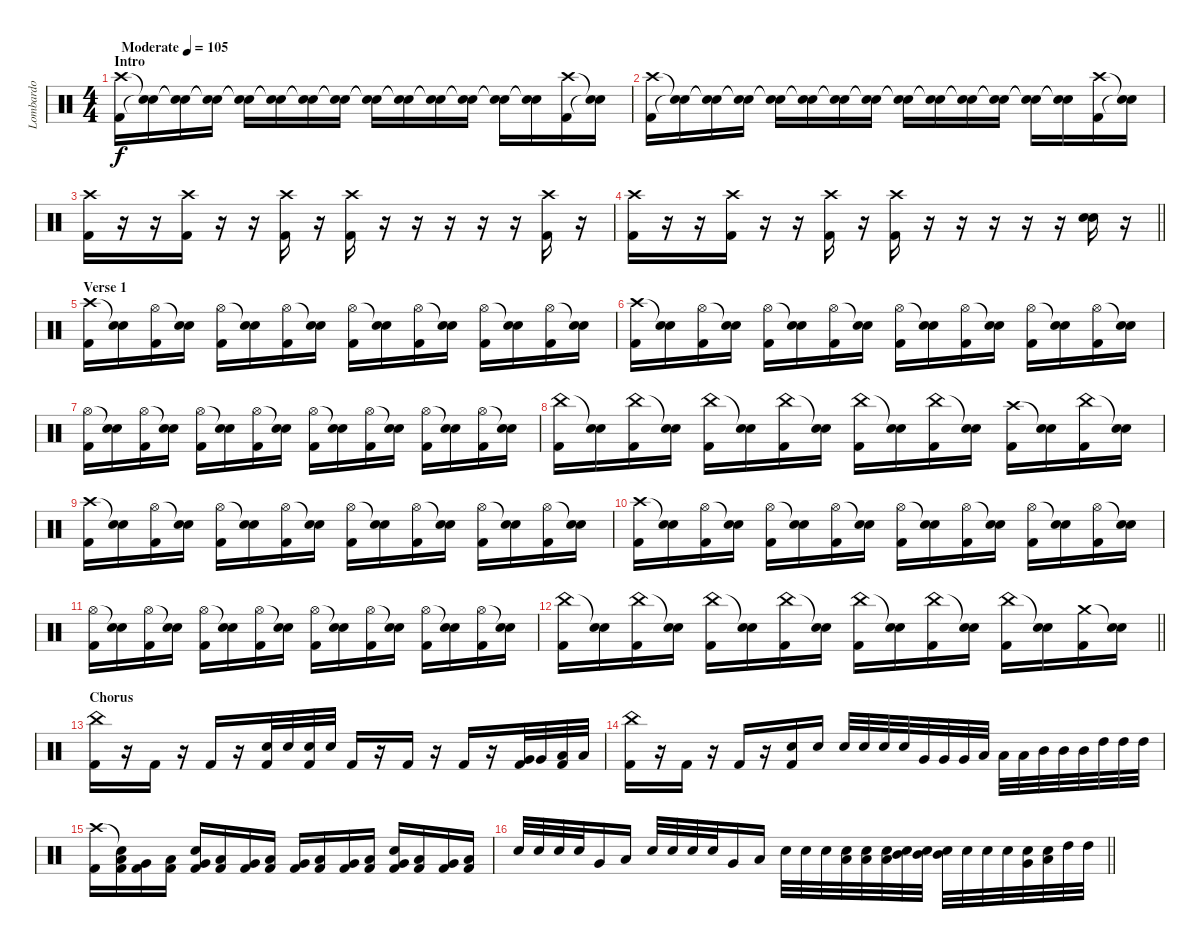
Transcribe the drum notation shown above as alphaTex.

\track ("Lombardo" "Lombardo") {instrument percussion}
\staff {score}
\articulation defaults
\ts (4 4)
\section ("" "Intro")
\tempo (105 "Moderate")
\clef neutral
\ks c
("Crash high (hit)" "Kick (hit) 2").16{dy f} ("Snare (hit)"{t} "Snare (hit)"{t}).16 ("Snare (hit)"{t} "Snare (hit)"{t}).16 ("Snare (hit)"{t} "Snare (hit)"{t}).16 ("Snare (hit)"{t} "Snare (hit)"{t}).16 ("Snare (hit)"{t} "Snare (hit)"{t}).16 ("Snare (hit)"{t} "Snare (hit)"{t}).16 ("Snare (hit)"{t} "Snare (hit)"{t}).16 ("Snare (hit)"{t} "Snare (hit)"{t}).16 ("Snare (hit)"{t} "Snare (hit)"{t}).16 ("Snare (hit)"{t} "Snare (hit)"{t}).16 ("Snare (hit)"{t} "Snare (hit)"{t}).16 ("Snare (hit)"{t} "Snare (hit)"{t}).16 ("Snare (hit)"{t} "Snare (hit)"{t}).16 ("Crash high (hit)" "Kick (hit) 2").16 ("Snare (hit)"{t} "Snare (hit)"{t}).16 |
("Crash high (hit)" "Kick (hit) 2").16 ("Snare (hit)"{t} "Snare (hit)"{t}).16 ("Snare (hit)"{t} "Snare (hit)"{t}).16 ("Snare (hit)"{t} "Snare (hit)"{t}).16 ("Snare (hit)"{t} "Snare (hit)"{t}).16 ("Snare (hit)"{t} "Snare (hit)"{t}).16 ("Snare (hit)"{t} "Snare (hit)"{t}).16 ("Snare (hit)"{t} "Snare (hit)"{t}).16 ("Snare (hit)"{t} "Snare (hit)"{t}).16 ("Snare (hit)"{t} "Snare (hit)"{t}).16 ("Snare (hit)"{t} "Snare (hit)"{t}).16 ("Snare (hit)"{t} "Snare (hit)"{t}).16 ("Snare (hit)"{t} "Snare (hit)"{t}).16 ("Snare (hit)"{t} "Snare (hit)"{t}).16 ("Crash high (hit)" "Kick (hit) 2").16 ("Snare (hit)"{t} "Snare (hit)"{t}).16 |
("Crash high (hit)" "Kick (hit) 2").16 r.16 r.16 ("Crash high (hit)" "Kick (hit) 2").16 r.16 r.16 ("Crash high (hit)" "Kick (hit) 2").16 r.16 ("Crash high (hit)" "Kick (hit) 2").16 r.16 r.16 r.16 r.16 r.16 ("Crash high (hit)" "Kick (hit) 2").16 r.16 |
\barLineRight lightlight
("Crash high (hit)" "Kick (hit) 2").16 r.16 r.16 ("Crash high (hit)" "Kick (hit) 2").16 r.16 r.16 ("Crash high (hit)" "Kick (hit) 2").16 r.16 ("Crash high (hit)" "Kick (hit) 2").16 r.16 r.16 r.16 r.16 r.16 ("Snare (hit) 2" "Snare (hit) 2").16 r.16 |
\section ("" "Verse 1")
("Crash high (hit)" "Kick (hit) 2").16 ("Snare (hit)"{t} "Snare (hit) 2").16 ("Hi-Hat (open)" "Kick (hit) 2").16 ("Snare (hit)"{t} "Snare (hit) 2").16 ("Hi-Hat (open)" "Kick (hit) 2").16 ("Snare (hit)"{t} "Snare (hit) 2").16 ("Hi-Hat (open)" "Kick (hit) 2").16 ("Snare (hit)"{t} "Snare (hit) 2").16 ("Hi-Hat (open)" "Kick (hit) 2").16 ("Snare (hit)"{t} "Snare (hit) 2").16 ("Hi-Hat (open)" "Kick (hit) 2").16 ("Snare (hit)"{t} "Snare (hit) 2").16 ("Hi-Hat (open)" "Kick (hit) 2").16 ("Snare (hit)"{t} "Snare (hit) 2").16 ("Hi-Hat (open)" "Kick (hit) 2").16 ("Snare (hit)"{t} "Snare (hit) 2").16 |
("Crash high (hit)" "Kick (hit) 2").16 ("Snare (hit)"{t} "Snare (hit) 2").16 ("Hi-Hat (open)" "Kick (hit) 2").16 ("Snare (hit)"{t} "Snare (hit) 2").16 ("Hi-Hat (open)" "Kick (hit) 2").16 ("Snare (hit)"{t} "Snare (hit) 2").16 ("Hi-Hat (open)" "Kick (hit) 2").16 ("Snare (hit)"{t} "Snare (hit) 2").16 ("Hi-Hat (open)" "Kick (hit) 2").16 ("Snare (hit)"{t} "Snare (hit) 2").16 ("Hi-Hat (open)" "Kick (hit) 2").16 ("Snare (hit)"{t} "Snare (hit) 2").16 ("Hi-Hat (open)" "Kick (hit) 2").16 ("Snare (hit)"{t} "Snare (hit) 2").16 ("Hi-Hat (open)" "Kick (hit) 2").16 ("Snare (hit)"{t} "Snare (hit) 2").16 |
("Hi-Hat (open)" "Kick (hit) 2").16 ("Snare (hit)"{t} "Snare (hit) 2").16 ("Hi-Hat (open)" "Kick (hit) 2").16 ("Snare (hit)"{t} "Snare (hit) 2").16 ("Hi-Hat (open)" "Kick (hit) 2").16 ("Snare (hit)"{t} "Snare (hit) 2").16 ("Hi-Hat (open)" "Kick (hit) 2").16 ("Snare (hit)"{t} "Snare (hit) 2").16 ("Hi-Hat (open)" "Kick (hit) 2").16 ("Snare (hit)"{t} "Snare (hit) 2").16 ("Hi-Hat (open)" "Kick (hit) 2").16 ("Snare (hit)"{t} "Snare (hit) 2").16 ("Hi-Hat (open)" "Kick (hit) 2").16 ("Snare (hit)"{t} "Snare (hit) 2").16 ("Hi-Hat (open)" "Kick (hit) 2").16 ("Snare (hit)"{t} "Snare (hit) 2").16 |
("China (hit)" "Kick (hit) 2").16 ("Snare (hit)"{t} "Snare (hit) 2").16 ("China (hit)" "Kick (hit) 2").16 ("Snare (hit)"{t} "Snare (hit) 2").16 ("China (hit)" "Kick (hit) 2").16 ("Snare (hit)"{t} "Snare (hit) 2").16 ("China (hit)" "Kick (hit) 2").16 ("Snare (hit)"{t} "Snare (hit) 2").16 ("China (hit)" "Kick (hit) 2").16 ("Snare (hit)"{t} "Snare (hit) 2").16 ("China (hit)" "Kick (hit) 2").16 ("Snare (hit)"{t} "Snare (hit) 2").16 ("Crash high (hit)" "Kick (hit) 2").16 ("Snare (hit)"{t} "Snare (hit) 2").16 ("China (hit)" "Kick (hit) 2").16 ("Snare (hit)"{t} "Snare (hit) 2").16 |
("Crash high (hit)" "Kick (hit) 2").16 ("Snare (hit)"{t} "Snare (hit) 2").16 ("Hi-Hat (open)" "Kick (hit) 2").16 ("Snare (hit)"{t} "Snare (hit) 2").16 ("Hi-Hat (open)" "Kick (hit) 2").16 ("Snare (hit)"{t} "Snare (hit) 2").16 ("Hi-Hat (open)" "Kick (hit) 2").16 ("Snare (hit)"{t} "Snare (hit) 2").16 ("Hi-Hat (open)" "Kick (hit) 2").16 ("Snare (hit)"{t} "Snare (hit) 2").16 ("Hi-Hat (open)" "Kick (hit) 2").16 ("Snare (hit)"{t} "Snare (hit) 2").16 ("Hi-Hat (open)" "Kick (hit) 2").16 ("Snare (hit)"{t} "Snare (hit) 2").16 ("Hi-Hat (open)" "Kick (hit) 2").16 ("Snare (hit)"{t} "Snare (hit) 2").16 |
("Crash high (hit)" "Kick (hit) 2").16 ("Snare (hit)"{t} "Snare (hit) 2").16 ("Hi-Hat (open)" "Kick (hit) 2").16 ("Snare (hit)"{t} "Snare (hit) 2").16 ("Hi-Hat (open)" "Kick (hit) 2").16 ("Snare (hit)"{t} "Snare (hit) 2").16 ("Hi-Hat (open)" "Kick (hit) 2").16 ("Snare (hit)"{t} "Snare (hit) 2").16 ("Hi-Hat (open)" "Kick (hit) 2").16 ("Snare (hit)"{t} "Snare (hit) 2").16 ("Hi-Hat (open)" "Kick (hit) 2").16 ("Snare (hit)"{t} "Snare (hit) 2").16 ("Hi-Hat (open)" "Kick (hit) 2").16 ("Snare (hit)"{t} "Snare (hit) 2").16 ("Hi-Hat (open)" "Kick (hit) 2").16 ("Snare (hit)"{t} "Snare (hit) 2").16 |
("Hi-Hat (open)" "Kick (hit) 2").16 ("Snare (hit)"{t} "Snare (hit) 2").16 ("Hi-Hat (open)" "Kick (hit) 2").16 ("Snare (hit)"{t} "Snare (hit) 2").16 ("Hi-Hat (open)" "Kick (hit) 2").16 ("Snare (hit)"{t} "Snare (hit) 2").16 ("Hi-Hat (open)" "Kick (hit) 2").16 ("Snare (hit)"{t} "Snare (hit) 2").16 ("Hi-Hat (open)" "Kick (hit) 2").16 ("Snare (hit)"{t} "Snare (hit) 2").16 ("Hi-Hat (open)" "Kick (hit) 2").16 ("Snare (hit)"{t} "Snare (hit) 2").16 ("Hi-Hat (open)" "Kick (hit) 2").16 ("Snare (hit)"{t} "Snare (hit) 2").16 ("Hi-Hat (open)" "Kick (hit) 2").16 ("Snare (hit)"{t} "Snare (hit) 2").16 |
\barLineRight lightlight
("China (hit)" "Kick (hit) 2").16 ("Snare (hit)"{t} "Snare (hit) 2").16 ("China (hit)" "Kick (hit) 2").16 ("Snare (hit)"{t} "Snare (hit) 2").16 ("China (hit)" "Kick (hit) 2").16 ("Snare (hit)"{t} "Snare (hit) 2").16 ("China (hit)" "Kick (hit) 2").16 ("Snare (hit)"{t} "Snare (hit) 2").16 ("China (hit)" "Kick (hit) 2").16 ("Snare (hit)"{t} "Snare (hit) 2").16 ("China (hit)" "Kick (hit) 2").16 ("Snare (hit)"{t} "Snare (hit) 2").16 ("China (hit)" "Kick (hit) 2").16 ("Snare (hit)"{t} "Snare (hit) 2").16 ("Crash medium (hit)" "Kick (hit) 2").16 ("Snare (hit)"{t} "Snare (hit) 2").16 |
\section ("" "Chorus")
("China (hit)" "Kick (hit) 2").16 r.16 "Kick (hit) 2".16 r.16 "Kick (hit) 2".16 r.16 ("Kick (hit) 2" "Snare (hit) 2").32 "Snare (hit) 2".32 ("Kick (hit) 2" "Snare (hit) 2").32 "Snare (hit) 2".32 "Kick (hit) 2".16 r.16 "Kick (hit) 2".16 r.16 "Kick (hit) 2".16 r.16 ("Kick (hit) 2" "Very Low Tom (hit)").32 "Very Low Tom (hit)".32 ("Kick (hit) 2" "Low Tom (hit)").32 "Low Tom (hit)".32 |
("China (hit)" "Kick (hit) 2").16 r.16 "Kick (hit) 2".16 r.16 "Kick (hit) 2".16 r.16 ("Kick (hit) 2" "Snare (hit) 2").16 "Snare (hit) 2".16 "Snare (hit) 2".32 "Snare (hit) 2".32 "Snare (hit) 2".32 "Snare (hit) 2".32 "Very Low Tom (hit)".32 "Very Low Tom (hit)".32 "Very Low Tom (hit)".32 "Low Tom (hit)".32 "Low Tom (hit)".32 "Low Tom (hit)".32 "Mid Tom (hit)".32 "Mid Tom (hit)".32 "Mid Tom (hit)".32 "High Tom (hit)".32 "High Tom (hit)".32 "High Tom (hit)".32 |
("Crash high (hit)" "Kick (hit) 2").16 ("Snare (hit)"{t} "Kick (hit) 2" "Low Tom (hit)").16 ("Kick (hit) 2" "Very Low Tom (hit)").16 ("Kick (hit) 2" "Low Tom (hit)").16 ("Kick (hit) 2" "Very Low Tom (hit)" "Snare (hit) 2").16 ("Kick (hit) 2" "Low Tom (hit)").16 ("Kick (hit) 2" "Very Low Tom (hit)").16 ("Kick (hit) 2" "Low Tom (hit)").16 ("Kick (hit) 2" "Very Low Tom (hit)").16 ("Kick (hit) 2" "Low Tom (hit)").16 ("Kick (hit) 2" "Very Low Tom (hit)").16 ("Kick (hit) 2" "Low Tom (hit)").16 ("Kick (hit) 2" "Very Low Tom (hit)" "Snare (hit) 2").16 ("Kick (hit) 2" "Low Tom (hit)").16 ("Kick (hit) 2" "Very Low Tom (hit)").16 ("Kick (hit) 2" "Low Tom (hit)").16 |
\barLineRight lightlight "Snare (hit) 2".32 "Snare (hit) 2".32 "Snare (hit) 2".32 "Snare (hit) 2".32 "Very Low Tom (hit)".16 "Low Tom (hit)".16 "Snare (hit) 2".32 "Snare (hit) 2".32 "Snare (hit) 2".32 "Snare (hit) 2".32 "Very Low Tom (hit)".16 "Low Tom (hit)".16 "Snare (hit) 2".32 "Snare (hit) 2".32 "Snare (hit) 2".32
("Low Tom (hit)" "Snare (hit) 2").32 ("Low Tom (hit)" "Snare (hit) 2").32 ("Low Tom (hit)" "Snare (hit) 2").32 ("Mid Tom (hit)" "Snare (hit) 2").32 ("Mid Tom (hit)" "Snare (hit) 2").32 ("Mid Tom (hit)" "Snare (hit) 2").32 "Snare (hit) 2".32 "Snare (hit) 2".32 "Snare (hit) 2".32 ("Very Low Tom (hit)" "Snare (hit) 2").32 ("Low Tom (hit)" "Snare (hit) 2").32 "High Tom (hit)".32 "High Tom (hit)".32
